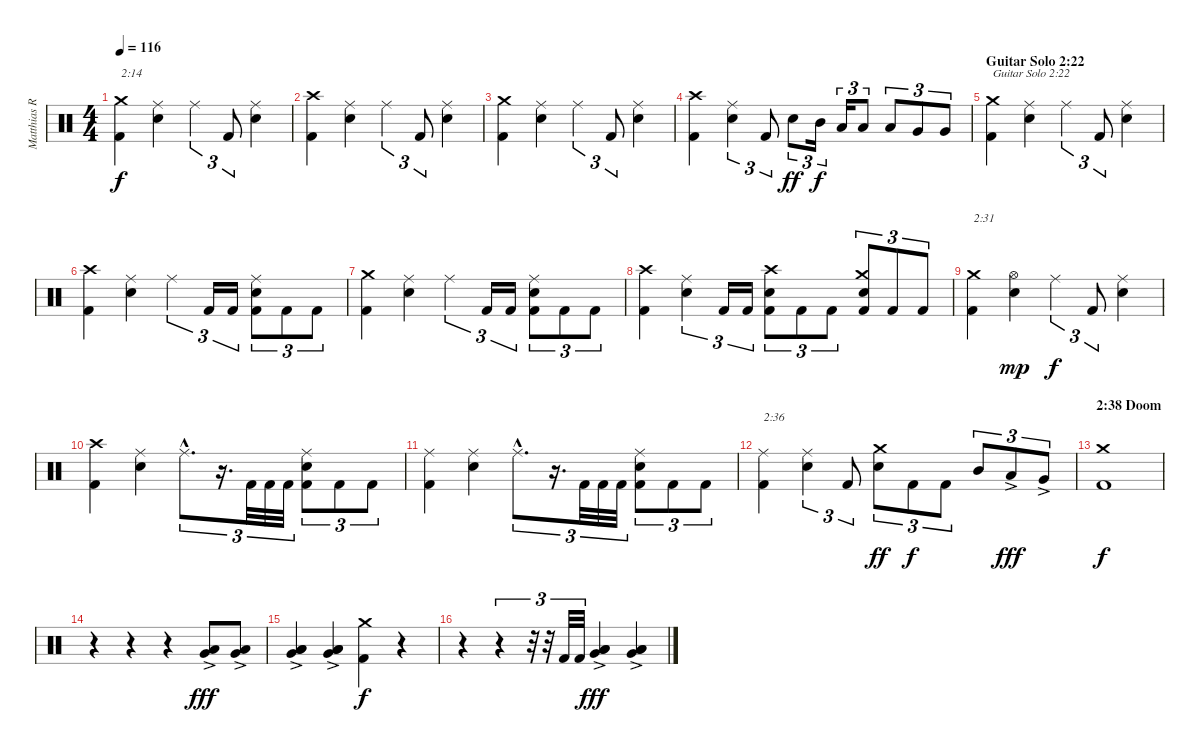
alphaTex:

\track ("Matthias R." "Matthias R") {instrument percussion}
\staff {score}
\articulation defaults
\ts (4 4)
\tempo 116
\clef neutral
\ks c
("Kick (hit) 2" "Crash medium (hit)").4{txt "2:14" dy f} ("Electric Snare (hit)" "Ride (middle)").4 "Ride (middle)".4{tu (3 2)} "Kick (hit) 2".8{tu (3 2)} ("Electric Snare (hit)" "Ride (middle)").4 |
("Kick (hit) 2" "Crash high (hit)").4 ("Electric Snare (hit)" "Ride (middle)").4 "Ride (middle)".4{tu (3 2)} "Kick (hit) 2".8{tu (3 2)} ("Electric Snare (hit)" "Ride (middle)").4 |
("Kick (hit) 2" "Crash medium (hit)").4 ("Electric Snare (hit)" "Ride (middle)").4 "Ride (middle)".4{tu (3 2)} "Kick (hit) 2".8{tu (3 2)} ("Electric Snare (hit)" "Ride (middle)").4 |
("Kick (hit) 2" "Crash high (hit)").4 ("Electric Snare (hit)" "Ride (middle)").4{tu (3 2)} "Kick (hit) 2".8{tu (3 2)} "Electric Snare (hit)".8{tu (3 2) dy ff} "Mid Tom (hit)".16{tu (3 2) dy f} "Low Tom (hit)".16{tu (3 2)} "Low Tom (hit)".8{tu (3 2)} "Low Tom (hit)".8{tu (3 2)} "Very Low Tom (hit)".8{tu (3 2)} "Very Low Tom (hit)".8{tu (3 2)} |
\section ("" "Guitar Solo 2:22")
("Kick (hit) 2" "Crash medium (hit)").4{txt "Guitar Solo 2:22"} ("Electric Snare (hit)" "Ride (middle)").4 "Ride (middle)".4{tu (3 2)} "Kick (hit) 2".8{tu (3 2)} ("Electric Snare (hit)" "Ride (middle)").4 |
("Kick (hit) 2" "Crash high (hit)").4 ("Electric Snare (hit)" "Ride (middle)").4 "Ride (middle)".4{tu (3 2)} "Kick (hit) 2".16{tu (3 2)} "Kick (hit) 2".16{tu (3 2)} ("Kick (hit) 2" "Electric Snare (hit)" "Ride (middle)").8{tu (3 2)} "Kick (hit) 2".8{tu (3 2)} "Kick (hit) 2".8{tu (3 2)} |
("Kick (hit) 2" "Crash medium (hit)").4 ("Electric Snare (hit)" "Ride (middle)").4 "Ride (middle)".4{tu (3 2)} "Kick (hit) 2".16{tu (3 2)} "Kick (hit) 2".16{tu (3 2)} ("Kick (hit) 2" "Electric Snare (hit)" "Ride (middle)").8{tu (3 2)} "Kick (hit) 2".8{tu (3 2)} "Kick (hit) 2".8{tu (3 2)} |
("Kick (hit) 2" "Crash high (hit)").4 ("Electric Snare (hit)" "Ride (middle)").4{tu (3 2)} "Kick (hit) 2".16{tu (3 2)} "Kick (hit) 2".16{tu (3 2)} ("Kick (hit) 2" "Electric Snare (hit)" "Crash high (hit)").8{tu (3 2)} "Kick (hit) 2".8{tu (3 2)} "Kick (hit) 2".8{tu (3 2)} ("Kick (hit) 2" "Electric Snare (hit)" "Crash medium (hit)").8{tu (3 2)} "Kick (hit) 2".8{tu (3 2)} "Kick (hit) 2".8{tu (3 2)} |
("Kick (hit) 2" "Crash medium (hit)").4{txt "2:31"} ("Electric Snare (hit)" "Hi-Hat (open)").4{dy mp} "Ride (middle)".4{tu (3 2) dy f} "Kick (hit) 2".8{tu (3 2)} ("Electric Snare (hit)" "Ride (middle)").4 |
("Kick (hit) 2" "Crash high (hit)").4 ("Electric Snare (hit)" "Ride (middle)").4 "Ride (middle)"{hac}.8{d tu (3 2)} r.16{d tu (3 2)} "Kick (hit) 2".32{tu (3 2)} "Kick (hit) 2".32{tu (3 2)} "Kick (hit) 2".32{tu (3 2)} ("Kick (hit) 2" "Electric Snare (hit)" "Ride (middle)").8{tu (3 2)} "Kick (hit) 2".8{tu (3 2)} "Kick (hit) 2".8{tu (3 2)} |
("Kick (hit) 2" "Ride (middle)").4 ("Electric Snare (hit)" "Ride (middle)").4 "Ride (middle)"{hac}.8{d tu (3 2)} r.16{d tu (3 2)} "Kick (hit) 2".32{tu (3 2)} "Kick (hit) 2".32{tu (3 2)} "Kick (hit) 2".32{tu (3 2)} ("Kick (hit) 2" "Electric Snare (hit)" "Ride (middle)").8{tu (3 2)} "Kick (hit) 2".8{tu (3 2)} "Kick (hit) 2".8{tu (3 2)} |
("Kick (hit) 2" "Ride (middle)").4{txt "2:36"} ("Electric Snare (hit)" "Ride (middle)").4{tu (3 2)} "Kick (hit) 2".8{tu (3 2)} ("Electric Snare (hit)" "Crash medium (hit)").8{tu (3 2) dy ff} "Kick (hit) 2".8{tu (3 2) dy f} "Kick (hit) 2".8{tu (3 2)} "Mid Tom (hit)".8{tu (3 2)} "Low Tom (hit)"{ac}.8{tu (3 2) dy fff} "Very Low Tom (hit)"{ac}.8{tu (3 2)} |
\section ("" "2:38 Doom")
("Kick (hit) 2" "Crash medium (hit)").1{dy f} |
r.4 r.4 r.4 ("Low Floor Tom (hit)"{ac} "Very Low Tom (hit)"{ac}).8{dy fff} ("Low Floor Tom (hit)"{ac} "Very Low Tom (hit)"{ac}).8 |
("Low Floor Tom (hit)"{ac} "Low Tom (hit)"{ac} "Very Low Tom (hit)"{ac}).4 ("Low Floor Tom (hit)"{ac} "Low Tom (hit)"{ac} "Very Low Tom (hit)"{ac}).4 ("Kick (hit) 2" "Crash medium (hit)").4{dy f} r.4 |
r.4 r.4{tu (3 2)} r.32{tu (3 2)} r.32{tu (3 2)} "Kick (hit) 2".32{tu (3 2)} "Kick (hit) 2".32{tu (3 2)} ("Low Floor Tom (hit)" "Low Tom (hit)"{ac} "Very Low Tom (hit)"{ac}).4{dy fff} ("Low Floor Tom (hit)"{ac} "Low Tom (hit)"{ac} "Very Low Tom (hit)"{ac}).4
